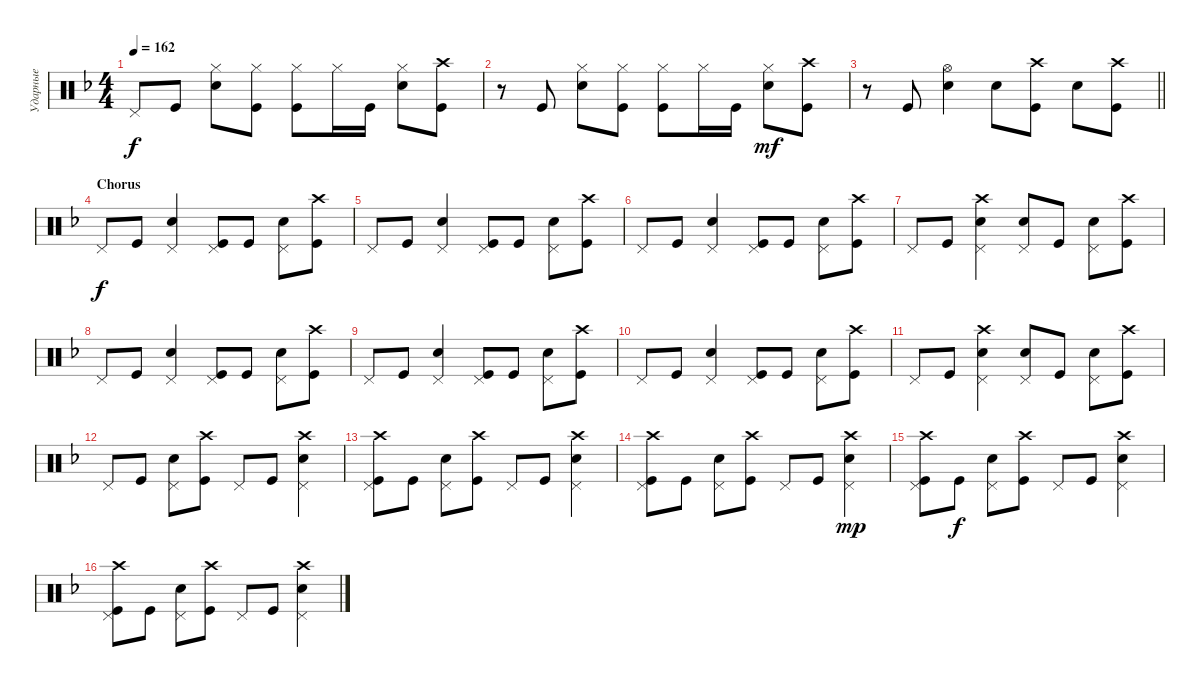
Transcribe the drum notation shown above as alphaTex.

\track ("Ударные" "Ударные") {instrument percussion}
\staff {score}
\articulation defaults
\ts (4 4)
\tempo 162
\clef neutral
\ks dminor "Pedal Hi-Hat (hit)".8{dy f} "Kick (hit)".8
("Hi-Hat (closed)" "Snare (hit) 2").8 ("Hi-Hat (closed)" "Kick (hit)").8 ("Hi-Hat (closed)" "Kick (hit)").8 "Hi-Hat (closed)".16 "Kick (hit)".16 ("Hi-Hat (closed)" "Snare (hit) 2").8 ("Crash high (hit)" "Kick (hit)").8 |
r.8 "Kick (hit)".8 ("Hi-Hat (closed)" "Snare (hit) 2").8 ("Hi-Hat (closed)" "Kick (hit)").8 ("Hi-Hat (closed)" "Kick (hit)").8 "Hi-Hat (closed)".16 "Kick (hit)".16 ("Hi-Hat (closed)" "Snare (hit) 2").8{dy mf} ("Kick (hit)" "Crash high (hit)").8 |
\barLineRight lightlight
r.8 "Kick (hit)".8 ("Snare (hit) 2" "Hi-Hat (open)").4 "Snare (hit) 2".8 ("Kick (hit)" "Crash high (hit)").8 "Snare (hit) 2".8 ("Kick (hit)" "Crash high (hit)").8 |
\section ("" "Chorus")
"Pedal Hi-Hat (hit)".8{dy f} "Kick (hit)".8 ("Snare (hit) 2" "Pedal Hi-Hat (hit)").4 ("Kick (hit)" "Pedal Hi-Hat (hit)").8 "Kick (hit)".8 ("Snare (hit) 2" "Pedal Hi-Hat (hit)").8 ("Kick (hit)" "Crash high (hit)").8 |
"Pedal Hi-Hat (hit)".8 "Kick (hit)".8 ("Snare (hit) 2" "Pedal Hi-Hat (hit)").4 ("Kick (hit)" "Pedal Hi-Hat (hit)").8 "Kick (hit)".8 ("Snare (hit) 2" "Pedal Hi-Hat (hit)").8 ("Kick (hit)" "Crash high (hit)").8 |
"Pedal Hi-Hat (hit)".8 "Kick (hit)".8 ("Snare (hit) 2" "Pedal Hi-Hat (hit)").4 ("Kick (hit)" "Pedal Hi-Hat (hit)").8 "Kick (hit)".8 ("Snare (hit) 2" "Pedal Hi-Hat (hit)").8 ("Kick (hit)" "Crash high (hit)").8 |
"Pedal Hi-Hat (hit)".8 "Kick (hit)".8 ("Snare (hit) 2" "Crash high (hit)" "Pedal Hi-Hat (hit)").4 ("Snare (hit) 2" "Pedal Hi-Hat (hit)").8 "Kick (hit)".8 ("Snare (hit) 2" "Pedal Hi-Hat (hit)").8 ("Kick (hit)" "Crash high (hit)").8 |
"Pedal Hi-Hat (hit)".8 "Kick (hit)".8 ("Snare (hit) 2" "Pedal Hi-Hat (hit)").4 ("Kick (hit)" "Pedal Hi-Hat (hit)").8 "Kick (hit)".8 ("Snare (hit) 2" "Pedal Hi-Hat (hit)").8 ("Kick (hit)" "Crash high (hit)").8 |
"Pedal Hi-Hat (hit)".8 "Kick (hit)".8 ("Snare (hit) 2" "Pedal Hi-Hat (hit)").4 ("Kick (hit)" "Pedal Hi-Hat (hit)").8 "Kick (hit)".8 ("Snare (hit) 2" "Pedal Hi-Hat (hit)").8 ("Kick (hit)" "Crash high (hit)").8 |
"Pedal Hi-Hat (hit)".8 "Kick (hit)".8 ("Snare (hit) 2" "Pedal Hi-Hat (hit)").4 ("Kick (hit)" "Pedal Hi-Hat (hit)").8 "Kick (hit)".8 ("Snare (hit) 2" "Pedal Hi-Hat (hit)").8 ("Kick (hit)" "Crash high (hit)").8 |
"Pedal Hi-Hat (hit)".8 "Kick (hit)".8 ("Snare (hit) 2" "Crash high (hit)" "Pedal Hi-Hat (hit)").4 ("Snare (hit) 2" "Pedal Hi-Hat (hit)").8 "Kick (hit)".8 ("Snare (hit) 2" "Pedal Hi-Hat (hit)").8 ("Kick (hit)" "Crash high (hit)").8 |
"Pedal Hi-Hat (hit)".8 "Kick (hit)".8 ("Snare (hit) 2" "Pedal Hi-Hat (hit)").8 ("Kick (hit)" "Crash high (hit)").8 "Pedal Hi-Hat (hit)".8 "Kick (hit)".8 ("Snare (hit) 2" "Crash high (hit)" "Pedal Hi-Hat (hit)").4 |
("Kick (hit)" "Crash high (hit)" "Pedal Hi-Hat (hit)").8 "Kick (hit)".8 ("Snare (hit) 2" "Pedal Hi-Hat (hit)").8 ("Kick (hit)" "Crash high (hit)").8 "Pedal Hi-Hat (hit)".8 "Kick (hit)".8 ("Snare (hit) 2" "Crash high (hit)" "Pedal Hi-Hat (hit)").4 |
("Kick (hit)" "Crash high (hit)" "Pedal Hi-Hat (hit)").8 "Kick (hit)".8 ("Snare (hit) 2" "Pedal Hi-Hat (hit)").8 ("Kick (hit)" "Crash high (hit)").8 "Pedal Hi-Hat (hit)".8 "Kick (hit)".8 ("Snare (hit) 2" "Pedal Hi-Hat (hit)" "Crash high (hit)").4{dy mp} |
("Kick (hit)" "Crash high (hit)" "Pedal Hi-Hat (hit)").8 "Kick (hit)".8{dy f} ("Snare (hit) 2" "Pedal Hi-Hat (hit)").8 ("Kick (hit)" "Crash high (hit)").8 "Pedal Hi-Hat (hit)".8 "Kick (hit)".8 ("Snare (hit) 2" "Crash high (hit)" "Pedal Hi-Hat (hit)").4 |
("Kick (hit)" "Crash high (hit)" "Pedal Hi-Hat (hit)").8 "Kick (hit)".8 ("Snare (hit) 2" "Pedal Hi-Hat (hit)").8 ("Kick (hit)" "Crash high (hit)").8 "Pedal Hi-Hat (hit)".8 "Kick (hit)".8 ("Snare (hit) 2" "Crash high (hit)" "Pedal Hi-Hat (hit)").4
